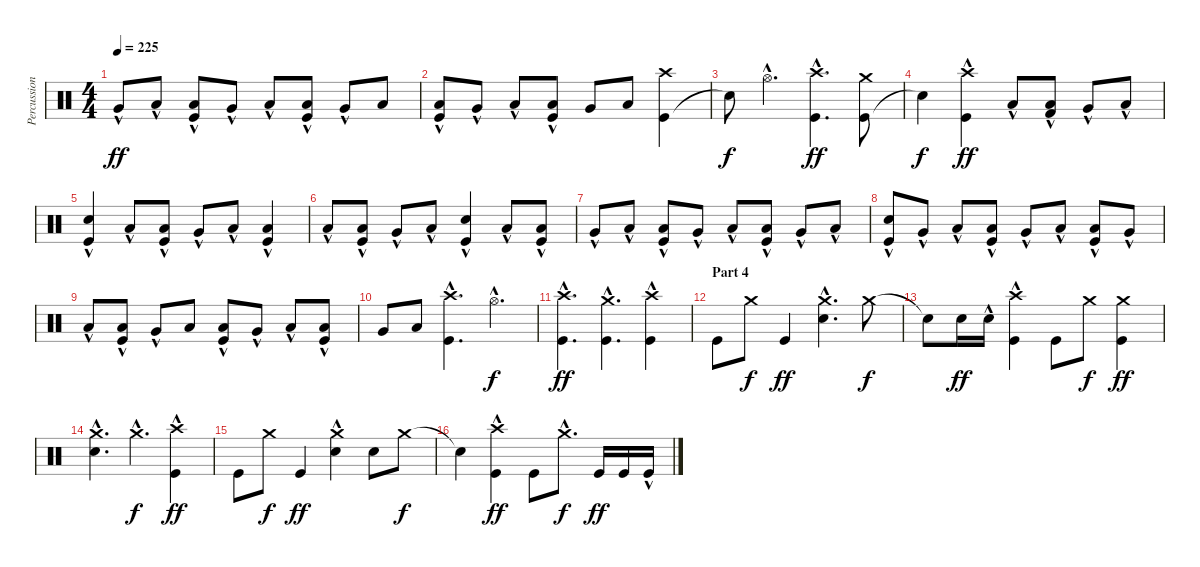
\track ("Percussions" "Percussion") {instrument percussion}
\staff {score}
\articulation defaults
\ts (4 4)
\tempo 225
\clef neutral
\ks c "Very Low Tom (hit)"{hac}.8{dy ff} "Low Floor Tom (hit)"{hac}.8
("Kick (hit)"{hac} "Low Tom (hit)").8 "Very Low Tom (hit)"{hac}.8 "Low Floor Tom (hit)"{hac}.8 ("Kick (hit)"{hac} "Low Tom (hit)"{hac}).8 "Very Low Tom (hit)"{hac}.8 "Low Floor Tom (hit)".8 |
("Kick (hit)"{hac} "Low Floor Tom (hit)"{hac}).8 "Very Low Tom (hit)"{hac}.8 "Low Floor Tom (hit)"{hac}.8 ("Kick (hit)"{hac} "Low Tom (hit)"{hac}).8 "Very Low Tom (hit)".8 "Low Floor Tom (hit)".8 ("Kick (hit)" "Crash high (hit)").4 |
"Snare (hit)"{t}.8{dy f} "Hi-Hat (open)"{hac}.4{d} ("Kick (hit)"{hac} "Crash high (hit)"{hac}).4{d dy ff} ("Kick (hit)" "Crash medium (hit)").8 |
"Snare (hit)"{t}.4{dy f} ("Kick (hit)"{hac} "Crash high (hit)").4{dy ff} "Low Floor Tom (hit)"{hac}.8 ("Kick (hit) 2"{hac} "Low Tom (hit)").8 "Very Low Tom (hit)"{hac}.8 "Low Floor Tom (hit)"{hac}.8 |
("Kick (hit)"{hac} "Electric Snare (hit)"{hac}).4 "Low Floor Tom (hit)"{hac}.8 ("Kick (hit)"{hac} "Low Tom (hit)").8 "Very Low Tom (hit)"{hac}.8 "Low Floor Tom (hit)"{hac}.8 ("Kick (hit)"{hac} "Low Tom (hit)").4 |
"Low Floor Tom (hit)"{hac}.8 ("Kick (hit)"{hac} "Low Tom (hit)").8 "Very Low Tom (hit)"{hac}.8 "Low Floor Tom (hit)"{hac}.8 ("Kick (hit)"{hac} "Electric Snare (hit)").4 "Low Floor Tom (hit)"{hac}.8 ("Kick (hit)"{hac} "Low Tom (hit)"{hac}).8 |
"Very Low Tom (hit)"{hac}.8 "Low Floor Tom (hit)"{hac}.8 ("Kick (hit)"{hac} "Low Tom (hit)").8 "Very Low Tom (hit)"{hac}.8 "Low Floor Tom (hit)"{hac}.8 ("Kick (hit)"{hac} "Low Tom (hit)"{hac}).8 "Very Low Tom (hit)"{hac}.8 "Low Floor Tom (hit)"{hac}.8 |
("Kick (hit)"{hac} "Electric Snare (hit)").8 "Very Low Tom (hit)"{hac}.8 "Low Floor Tom (hit)"{hac}.8 ("Kick (hit)"{hac} "Low Tom (hit)"{hac}).8 "Very Low Tom (hit)"{hac}.8 "Low Floor Tom (hit)"{hac}.8 ("Kick (hit)"{hac} "Low Tom (hit)").8 "Very Low Tom (hit)"{hac}.8 |
"Low Floor Tom (hit)"{hac}.8 ("Kick (hit)"{hac} "Low Tom (hit)"{hac}).8 "Very Low Tom (hit)"{hac}.8 "Low Floor Tom (hit)".8 ("Kick (hit)"{hac} "Low Floor Tom (hit)"{hac}).8 "Very Low Tom (hit)"{hac}.8 "Low Floor Tom (hit)"{hac}.8 ("Kick (hit)"{hac} "Low Tom (hit)"{hac}).8 |
"Very Low Tom (hit)".8 "Low Floor Tom (hit)".8 ("Kick (hit)"{hac} "Crash high (hit)"{hac}).4{d} "Hi-Hat (open)"{hac}.4{d dy f} |
("Kick (hit)"{hac} "Crash high (hit)"{hac}).4{d dy ff} ("Kick (hit)"{hac} "Crash medium (hit)"{hac}).4{d} ("Kick (hit)" "Crash high (hit)"{hac}).4 |
\section ("" "Part 4")
"Kick (hit)".8 "Crash medium (hit)".8{dy f} "Kick (hit)".4{dy ff} ("Electric Snare (hit)" "Crash medium (hit)"{hac}).4{d} "Crash medium (hit)".8{dy f} |
"Snare (hit)"{t}.8 "Electric Snare (hit)".16{dy ff} "Electric Snare (hit)"{hac}.16 ("Kick (hit)" "Crash high (hit)"{hac}).4 "Kick (hit)".8 "Crash medium (hit)".8{dy f} ("Kick (hit)" "Crash medium (hit)").4{dy ff} |
("Electric Snare (hit)" "Crash medium (hit)"{hac}).4{d} "Crash medium (hit)"{hac}.4{d dy f} ("Kick (hit)" "Crash high (hit)"{hac}).4{dy ff} |
"Kick (hit)".8 "Crash medium (hit)".8{dy f} "Kick (hit)".4{dy ff} ("Electric Snare (hit)" "Crash medium (hit)"{hac}).4 "Electric Snare (hit)".8 "Crash medium (hit)".8{dy f} |
"Snare (hit)"{t}.4 ("Kick (hit)" "Crash high (hit)"{hac}).4{dy ff} "Kick (hit)".8 "Crash medium (hit)"{hac}.8{d dy f} "Kick (hit)".16{dy ff} "Kick (hit)".16 "Kick (hit)"{hac}.16
